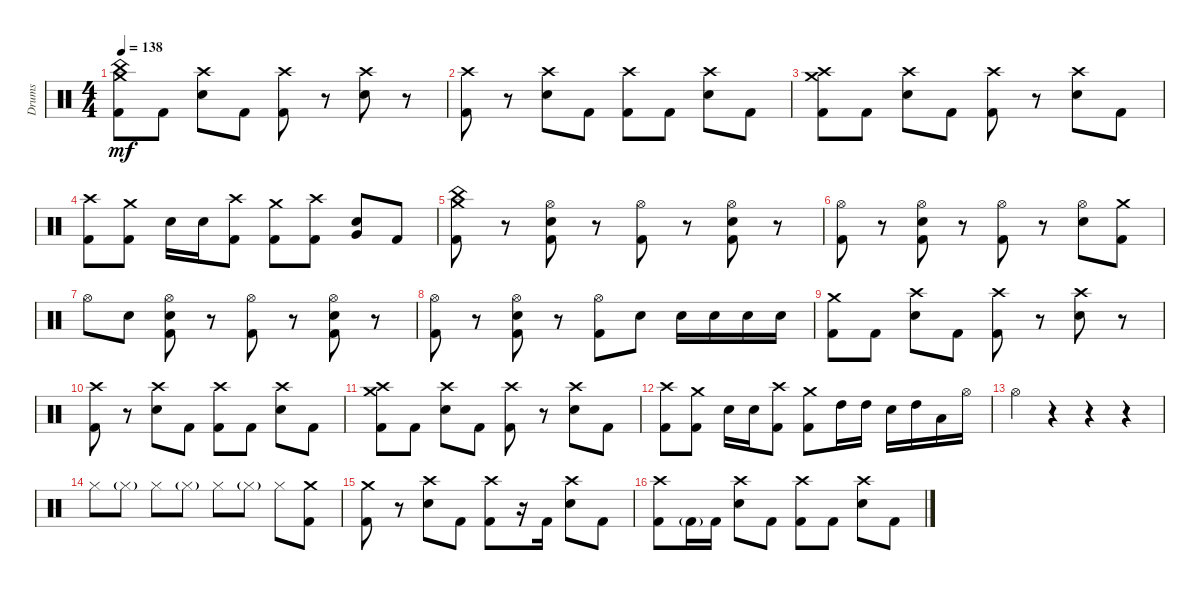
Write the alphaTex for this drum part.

\track ("Drums" "Drums") {instrument percussion}
\staff {score}
\articulation defaults
\ts (4 4)
\tempo 138
\clef neutral
\ks c
("Crash medium (hit)" "China (hit)" "Kick (hit) 2").8{dy mf} "Kick (hit) 2".8 ("Crash high (hit)" "Snare (hit) 2").8 "Kick (hit) 2".8 ("Crash high (hit)" "Kick (hit) 2").8 r.8 ("Crash high (hit)" "Snare (hit) 2").8 r.8 |
("Crash high (hit)" "Kick (hit) 2").8 r.8 ("Crash high (hit)" "Snare (hit) 2").8 "Kick (hit) 2".8 ("Crash high (hit)" "Kick (hit) 2").8 "Kick (hit) 2".8 ("Crash high (hit)" "Snare (hit) 2").8 "Kick (hit) 2".8 |
("Crash high (hit)" "Crash medium (hit)" "Kick (hit) 2").8 "Kick (hit) 2".8 ("Crash high (hit)" "Snare (hit) 2").8 "Kick (hit) 2".8 ("Crash high (hit)" "Kick (hit) 2").8 r.8 ("Crash high (hit)" "Snare (hit) 2").8 "Kick (hit) 2".8 |
("Crash high (hit)" "Kick (hit) 2").8 ("Crash medium (hit)" "Kick (hit) 2").8 "Snare (hit) 2".16 "Snare (hit) 2".16 ("Crash high (hit)" "Kick (hit) 2").8 ("Crash medium (hit)" "Kick (hit) 2").8 ("Crash high (hit)" "Kick (hit) 2").8 ("Snare (hit) 2" "Very Low Tom (hit)").8 "Kick (hit) 2".8 |
("Crash medium (hit)" "China (hit)" "Kick (hit) 2").8 r.8 ("Hi-Hat (open)" "Snare (hit) 2" "Kick (hit) 2").8 r.8 ("Hi-Hat (open)" "Kick (hit) 2").8 r.8 ("Hi-Hat (open)" "Snare (hit) 2" "Kick (hit) 2").8 r.8 |
("Hi-Hat (open)" "Kick (hit) 2").8 r.8 ("Hi-Hat (open)" "Snare (hit) 2" "Kick (hit) 2").8 r.8 ("Hi-Hat (open)" "Kick (hit) 2").8 r.8 ("Hi-Hat (open)" "Snare (hit) 2").8 ("Crash medium (hit)" "Kick (hit) 2").8 |
"Hi-Hat (open)".8 "Snare (hit) 2".8 ("Hi-Hat (open)" "Snare (hit) 2" "Kick (hit) 2").8 r.8 ("Hi-Hat (open)" "Kick (hit) 2").8 r.8 ("Hi-Hat (open)" "Snare (hit) 2" "Kick (hit) 2").8 r.8 |
("Hi-Hat (open)" "Kick (hit) 2").8 r.8 ("Hi-Hat (open)" "Snare (hit) 2" "Kick (hit) 2").8 r.8 ("Hi-Hat (open)" "Kick (hit) 2").8 "Snare (hit) 2".8 "Snare (hit) 2".16 "Snare (hit) 2".16 "Snare (hit) 2".16 "Snare (hit) 2".16 |
("Crash medium (hit)" "Kick (hit) 2").8 "Kick (hit) 2".8 ("Crash high (hit)" "Snare (hit) 2").8 "Kick (hit) 2".8 ("Crash high (hit)" "Kick (hit) 2").8 r.8 ("Crash high (hit)" "Snare (hit) 2").8 r.8 |
("Crash high (hit)" "Kick (hit) 2").8 r.8 ("Crash high (hit)" "Snare (hit) 2").8 "Kick (hit) 2".8 ("Crash high (hit)" "Kick (hit) 2").8 "Kick (hit) 2".8 ("Crash high (hit)" "Snare (hit) 2").8 "Kick (hit) 2".8 |
("Crash high (hit)" "Crash medium (hit)" "Kick (hit) 2").8 "Kick (hit) 2".8 ("Crash high (hit)" "Snare (hit) 2").8 "Kick (hit) 2".8 ("Crash high (hit)" "Kick (hit) 2").8 r.8 ("Crash high (hit)" "Snare (hit) 2").8 "Kick (hit) 2".8 |
("Crash high (hit)" "Kick (hit) 2").8 ("Crash medium (hit)" "Kick (hit) 2").8 "Snare (hit) 2".16 "Snare (hit) 2".16 ("Crash high (hit)" "Kick (hit) 2").8 ("Crash medium (hit)" "Kick (hit) 2").8 "High Tom (hit)".16 "High Tom (hit)".16 "Snare (hit) 2".16 "High Tom (hit)".16 "Low Tom (hit)".16 "Hi-Hat (open)".16 |
"Hi-Hat (open)".4 r.4 r.4 r.4 |
"Hi-Hat (closed)".8 "Hi-Hat (closed)"{g}.8 "Hi-Hat (closed)".8 "Hi-Hat (closed)"{g}.8 "Hi-Hat (closed)".8 "Hi-Hat (closed)"{g}.8 "Hi-Hat (closed)".8 ("Crash medium (hit)" "Kick (hit) 2").8 |
("Crash medium (hit)" "Kick (hit) 2").8 r.8 ("Crash high (hit)" "Snare (hit) 2").8 "Kick (hit) 2".8 ("Crash high (hit)" "Kick (hit) 2").8 r.16 "Kick (hit) 2".16 ("Crash high (hit)" "Snare (hit) 2").8 "Kick (hit) 2".8 |
("Crash high (hit)" "Kick (hit) 2").8 "Kick (hit) 2"{g}.16 "Kick (hit) 2".16 ("Crash high (hit)" "Snare (hit) 2").8 "Kick (hit) 2".8 ("Crash high (hit)" "Kick (hit) 2").8 "Kick (hit) 2".8 ("Crash high (hit)" "Snare (hit) 2").8 "Kick (hit) 2".8
